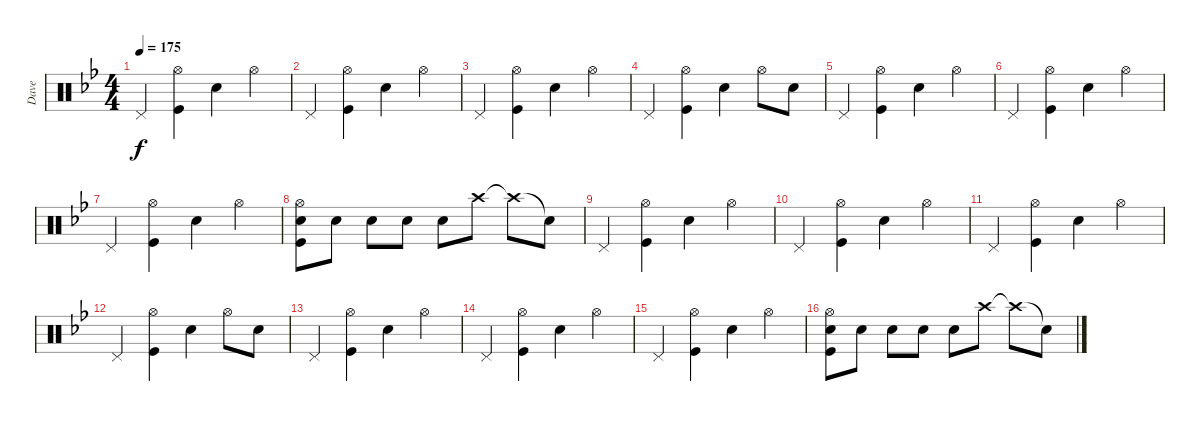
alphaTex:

\track ("Dave" "Dave") {instrument percussion}
\staff {score}
\articulation defaults
\ts (4 4)
\tempo 175
\clef neutral
\ks gminor "Pedal Hi-Hat (hit)".4{dy f}
("Hi-Hat (open)" "Kick (hit)").4 "Snare (hit) 2".4 "Hi-Hat (open)".4 |
"Pedal Hi-Hat (hit)".4 ("Hi-Hat (open)" "Kick (hit)").4 "Snare (hit) 2".4 "Hi-Hat (open)".4 |
"Pedal Hi-Hat (hit)".4 ("Hi-Hat (open)" "Kick (hit)").4 "Snare (hit) 2".4 "Hi-Hat (open)".4 |
"Pedal Hi-Hat (hit)".4 ("Hi-Hat (open)" "Kick (hit)").4 "Snare (hit) 2".4 "Hi-Hat (open)".8 "Snare (hit) 2".8 |
"Pedal Hi-Hat (hit)".4 ("Hi-Hat (open)" "Kick (hit)").4 "Snare (hit) 2".4 "Hi-Hat (open)".4 |
"Pedal Hi-Hat (hit)".4 ("Hi-Hat (open)" "Kick (hit)").4 "Snare (hit) 2".4 "Hi-Hat (open)".4 |
"Pedal Hi-Hat (hit)".4 ("Hi-Hat (open)" "Kick (hit)").4 "Snare (hit) 2".4 "Hi-Hat (open)".4 |
("Hi-Hat (open)" "Snare (hit) 2" "Kick (hit)").8 "Snare (hit) 2".8 "Snare (hit) 2".8 "Snare (hit) 2".8 "Snare (hit) 2".8 "Crash high (hit)".8 "Crash high (hit)"{t}.8 "Snare (hit)"{t}.8 |
"Pedal Hi-Hat (hit)".4 ("Hi-Hat (open)" "Kick (hit)").4 "Snare (hit) 2".4 "Hi-Hat (open)".4 |
"Pedal Hi-Hat (hit)".4 ("Hi-Hat (open)" "Kick (hit)").4 "Snare (hit) 2".4 "Hi-Hat (open)".4 |
"Pedal Hi-Hat (hit)".4 ("Hi-Hat (open)" "Kick (hit)").4 "Snare (hit) 2".4 "Hi-Hat (open)".4 |
"Pedal Hi-Hat (hit)".4 ("Hi-Hat (open)" "Kick (hit)").4 "Snare (hit) 2".4 "Hi-Hat (open)".8 "Snare (hit) 2".8 |
"Pedal Hi-Hat (hit)".4 ("Hi-Hat (open)" "Kick (hit)").4 "Snare (hit) 2".4 "Hi-Hat (open)".4 |
"Pedal Hi-Hat (hit)".4 ("Hi-Hat (open)" "Kick (hit)").4 "Snare (hit) 2".4 "Hi-Hat (open)".4 |
"Pedal Hi-Hat (hit)".4 ("Hi-Hat (open)" "Kick (hit)").4 "Snare (hit) 2".4 "Hi-Hat (open)".4 |
("Hi-Hat (open)" "Snare (hit) 2" "Kick (hit)").8 "Snare (hit) 2".8 "Snare (hit) 2".8 "Snare (hit) 2".8 "Snare (hit) 2".8 "Crash high (hit)".8 "Crash high (hit)"{t}.8 "Snare (hit)"{t}.8
